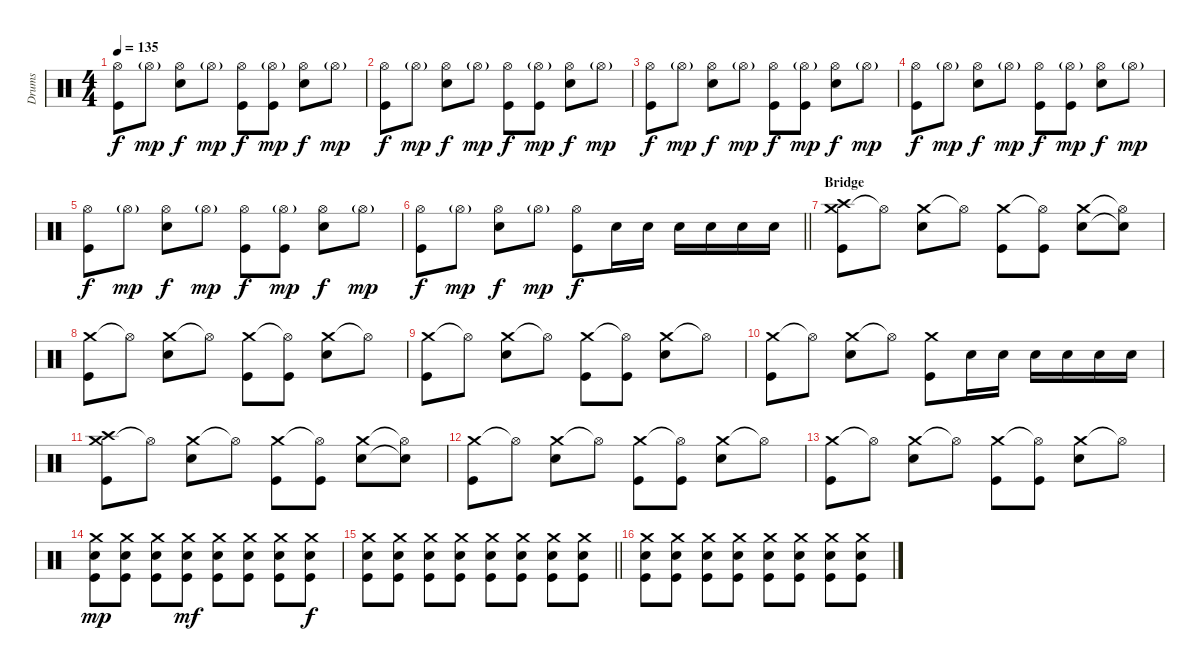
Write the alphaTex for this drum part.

\track ("Drums" "Drums") {instrument percussion}
\staff {score}
\articulation defaults
\ts (4 4)
\tempo 135
\clef neutral
\ks c
("Hi-Hat (open)" "Kick (hit)").8{dy f} "Hi-Hat (open)"{g}.8{dy mp} ("Hi-Hat (open)" "Electric Snare (hit)").8{dy f} "Hi-Hat (open)"{g}.8{dy mp} ("Hi-Hat (open)" "Kick (hit)").8{dy f} ("Hi-Hat (open)"{g} "Kick (hit)").8{dy mp} ("Hi-Hat (open)" "Electric Snare (hit)").8{dy f} "Hi-Hat (open)"{g}.8{dy mp} |
("Hi-Hat (open)" "Kick (hit)").8{dy f} "Hi-Hat (open)"{g}.8{dy mp} ("Hi-Hat (open)" "Electric Snare (hit)").8{dy f} "Hi-Hat (open)"{g}.8{dy mp} ("Hi-Hat (open)" "Kick (hit)").8{dy f} ("Hi-Hat (open)"{g} "Kick (hit)").8{dy mp} ("Hi-Hat (open)" "Electric Snare (hit)").8{dy f} "Hi-Hat (open)"{g}.8{dy mp} |
("Hi-Hat (open)" "Kick (hit)").8{dy f} "Hi-Hat (open)"{g}.8{dy mp} ("Hi-Hat (open)" "Electric Snare (hit)").8{dy f} "Hi-Hat (open)"{g}.8{dy mp} ("Hi-Hat (open)" "Kick (hit)").8{dy f} ("Hi-Hat (open)"{g} "Kick (hit)").8{dy mp} ("Hi-Hat (open)" "Electric Snare (hit)").8{dy f} "Hi-Hat (open)"{g}.8{dy mp} |
("Hi-Hat (open)" "Kick (hit)").8{dy f} "Hi-Hat (open)"{g}.8{dy mp} ("Hi-Hat (open)" "Electric Snare (hit)").8{dy f} "Hi-Hat (open)"{g}.8{dy mp} ("Hi-Hat (open)" "Kick (hit)").8{dy f} ("Hi-Hat (open)"{g} "Kick (hit)").8{dy mp} ("Hi-Hat (open)" "Electric Snare (hit)").8{dy f} "Hi-Hat (open)"{g}.8{dy mp} |
("Hi-Hat (open)" "Kick (hit)").8{dy f} "Hi-Hat (open)"{g}.8{dy mp} ("Hi-Hat (open)" "Electric Snare (hit)").8{dy f} "Hi-Hat (open)"{g}.8{dy mp} ("Hi-Hat (open)" "Kick (hit)").8{dy f} ("Hi-Hat (open)"{g} "Kick (hit)").8{dy mp} ("Hi-Hat (open)" "Electric Snare (hit)").8{dy f} "Hi-Hat (open)"{g}.8{dy mp} |
\barLineRight lightlight
("Hi-Hat (open)" "Kick (hit)").8{dy f} "Hi-Hat (open)"{g}.8{dy mp} ("Hi-Hat (open)" "Electric Snare (hit)").8{dy f} "Hi-Hat (open)"{g}.8{dy mp} ("Hi-Hat (open)" "Kick (hit)").8{dy f} "Electric Snare (hit)".16 "Electric Snare (hit)".16 "Electric Snare (hit)".16 "Electric Snare (hit)".16 "Electric Snare (hit)".16 "Electric Snare (hit)".16 |
\section ("" "Bridge")
("Crash medium (hit)" "Kick (hit)" "Crash high (hit)").8 "Hi-Hat (open)"{t}.8 ("Crash medium (hit)" "Electric Snare (hit)").8 "Hi-Hat (open)"{t}.8 ("Crash medium (hit)" "Kick (hit)").8 ("Hi-Hat (open)"{t} "Kick (hit)").8 ("Crash medium (hit)" "Electric Snare (hit)").8 ("Hi-Hat (open)"{t} "Snare (hit)"{t}).8 |
("Crash medium (hit)" "Kick (hit)").8 "Hi-Hat (open)"{t}.8 ("Crash medium (hit)" "Electric Snare (hit)").8 "Hi-Hat (open)"{t}.8 ("Crash medium (hit)" "Kick (hit)").8 ("Hi-Hat (open)"{t} "Kick (hit)").8 ("Crash medium (hit)" "Electric Snare (hit)").8 "Hi-Hat (open)"{t}.8 |
("Crash medium (hit)" "Kick (hit)").8 "Hi-Hat (open)"{t}.8 ("Crash medium (hit)" "Electric Snare (hit)").8 "Hi-Hat (open)"{t}.8 ("Crash medium (hit)" "Kick (hit)").8 ("Hi-Hat (open)"{t} "Kick (hit)").8 ("Crash medium (hit)" "Electric Snare (hit)").8 "Hi-Hat (open)"{t}.8 |
("Crash medium (hit)" "Kick (hit)").8 "Hi-Hat (open)"{t}.8 ("Crash medium (hit)" "Electric Snare (hit)").8 "Hi-Hat (open)"{t}.8 ("Crash medium (hit)" "Kick (hit)").8 "Electric Snare (hit)".16 "Electric Snare (hit)".16 "Electric Snare (hit)".16 "Electric Snare (hit)".16 "Electric Snare (hit)".16 "Electric Snare (hit)".16 |
("Crash medium (hit)" "Kick (hit)" "Crash high (hit)").8 "Hi-Hat (open)"{t}.8 ("Crash medium (hit)" "Electric Snare (hit)").8 "Hi-Hat (open)"{t}.8 ("Crash medium (hit)" "Kick (hit)").8 ("Hi-Hat (open)"{t} "Kick (hit)").8 ("Crash medium (hit)" "Electric Snare (hit)").8 ("Hi-Hat (open)"{t} "Snare (hit)"{t}).8 |
("Crash medium (hit)" "Kick (hit)").8 "Hi-Hat (open)"{t}.8 ("Crash medium (hit)" "Electric Snare (hit)").8 "Hi-Hat (open)"{t}.8 ("Crash medium (hit)" "Kick (hit)").8 ("Hi-Hat (open)"{t} "Kick (hit)").8 ("Crash medium (hit)" "Electric Snare (hit)").8 "Hi-Hat (open)"{t}.8 |
("Crash medium (hit)" "Kick (hit)").8 "Hi-Hat (open)"{t}.8 ("Crash medium (hit)" "Electric Snare (hit)").8 "Hi-Hat (open)"{t}.8 ("Crash medium (hit)" "Kick (hit)").8 ("Hi-Hat (open)"{t} "Kick (hit)").8 ("Crash medium (hit)" "Electric Snare (hit)").8 "Hi-Hat (open)"{t}.8 |
("Crash medium (hit)" "Electric Snare (hit)" "Kick (hit)").8{dy mp} ("Crash medium (hit)" "Electric Snare (hit)" "Kick (hit)").8 ("Crash medium (hit)" "Electric Snare (hit)" "Kick (hit)").8 ("Crash medium (hit)" "Electric Snare (hit)" "Kick (hit)").8{dy mf} ("Crash medium (hit)" "Electric Snare (hit)" "Kick (hit)").8 ("Crash medium (hit)" "Electric Snare (hit)" "Kick (hit)").8 ("Crash medium (hit)" "Electric Snare (hit)" "Kick (hit)").8 ("Crash medium (hit)" "Electric Snare (hit)" "Kick (hit)").8{dy f} |
\barLineRight lightlight
("Crash medium (hit)" "Electric Snare (hit)" "Kick (hit)").8 ("Crash medium (hit)" "Electric Snare (hit)" "Kick (hit)").8 ("Crash medium (hit)" "Electric Snare (hit)" "Kick (hit)").8 ("Crash medium (hit)" "Electric Snare (hit)" "Kick (hit)").8 ("Crash medium (hit)" "Electric Snare (hit)" "Kick (hit)").8 ("Crash medium (hit)" "Electric Snare (hit)" "Kick (hit)").8 ("Crash medium (hit)" "Electric Snare (hit)" "Kick (hit)").8 ("Crash medium (hit)" "Electric Snare (hit)" "Kick (hit)").8 |
("Crash medium (hit)" "Electric Snare (hit)" "Kick (hit)").8 ("Crash medium (hit)" "Electric Snare (hit)" "Kick (hit)").8 ("Crash medium (hit)" "Electric Snare (hit)" "Kick (hit)").8 ("Crash medium (hit)" "Electric Snare (hit)" "Kick (hit)").8 ("Crash medium (hit)" "Electric Snare (hit)" "Kick (hit)").8 ("Crash medium (hit)" "Electric Snare (hit)" "Kick (hit)").8 ("Crash medium (hit)" "Electric Snare (hit)" "Kick (hit)").8 ("Crash medium (hit)" "Electric Snare (hit)" "Kick (hit)").8
